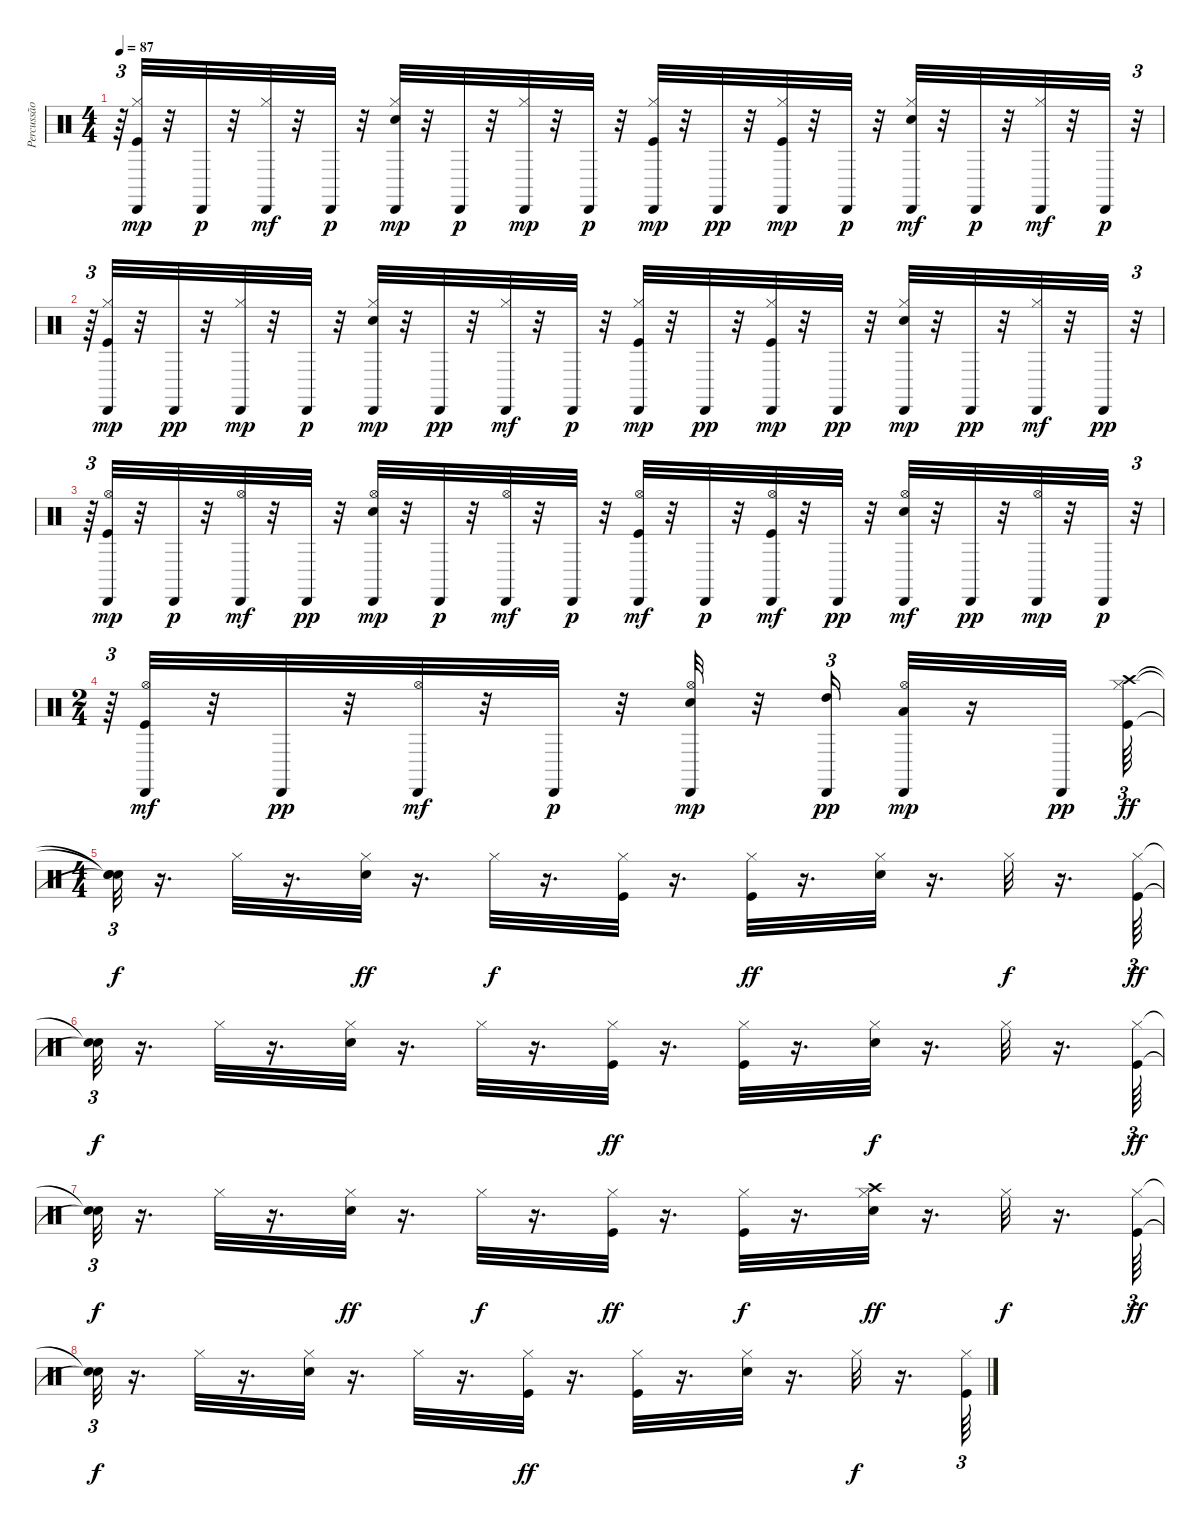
\track ("Percussão" "Percussão") {instrument percussion}
\staff {score}
\articulation defaults
\ts (4 4)
\tempo 87
\clef neutral
\ks c
r.64{tu (3 2) dy p} ("Kick (hit)" "Hi-Hat (closed)" "Cabasa (hit)").32{dy mp} r.32 "Cabasa (hit)".32{dy p} r.32 ("Hi-Hat (closed)" "Cabasa (hit)").32{dy mf} r.32 "Cabasa (hit)".32{dy p} r.32 ("Electric Snare (hit)" "Hi-Hat (closed)" "Cabasa (hit)").32{dy mp} r.32 "Cabasa (hit)".32{dy p} r.32 ("Hi-Hat (closed)" "Cabasa (hit)").32{dy mp} r.32 "Cabasa (hit)".32{dy p} r.32 ("Kick (hit)" "Hi-Hat (closed)" "Cabasa (hit)").32{dy mp} r.32 "Cabasa (hit)".32{dy pp} r.32 ("Kick (hit)" "Hi-Hat (closed)" "Cabasa (hit)").32{dy mp} r.32 "Cabasa (hit)".32{dy p} r.32 ("Electric Snare (hit)" "Hi-Hat (closed)" "Cabasa (hit)").32{dy mf} r.32 "Cabasa (hit)".32{dy p} r.32 ("Hi-Hat (closed)" "Cabasa (hit)").32{dy mf} r.32 "Cabasa (hit)".32{dy p} r.32{tu (3 2)} |
r.64{tu (3 2)} ("Kick (hit)" "Hi-Hat (closed)" "Cabasa (hit)").32{dy mp} r.32 "Cabasa (hit)".32{dy pp} r.32 ("Hi-Hat (closed)" "Cabasa (hit)").32{dy mp} r.32 "Cabasa (hit)".32{dy p} r.32 ("Electric Snare (hit)" "Hi-Hat (closed)" "Cabasa (hit)").32{dy mp} r.32 "Cabasa (hit)".32{dy pp} r.32 ("Hi-Hat (closed)" "Cabasa (hit)").32{dy mf} r.32 "Cabasa (hit)".32{dy p} r.32 ("Kick (hit)" "Hi-Hat (closed)" "Cabasa (hit)").32{dy mp} r.32 "Cabasa (hit)".32{dy pp} r.32 ("Kick (hit)" "Hi-Hat (closed)" "Cabasa (hit)").32{dy mp} r.32 "Cabasa (hit)".32{dy pp} r.32 ("Electric Snare (hit)" "Hi-Hat (closed)" "Cabasa (hit)").32{dy mp} r.32 "Cabasa (hit)".32{dy pp} r.32 ("Hi-Hat (closed)" "Cabasa (hit)").32{dy mf} r.32 "Cabasa (hit)".32{dy pp} r.32{tu (3 2)} |
r.64{tu (3 2)} ("Kick (hit)" "Hi-Hat (open)" "Cabasa (hit)").32{dy mp} r.32 "Cabasa (hit)".32{dy p} r.32 ("Hi-Hat (open)" "Cabasa (hit)").32{dy mf} r.32 "Cabasa (hit)".32{dy pp} r.32 ("Electric Snare (hit)" "Hi-Hat (open)" "Cabasa (hit)").32{dy mp} r.32 "Cabasa (hit)".32{dy p} r.32 ("Hi-Hat (open)" "Cabasa (hit)").32{dy mf} r.32 "Cabasa (hit)".32{dy p} r.32 ("Kick (hit)" "Hi-Hat (open)" "Cabasa (hit)").32{dy mf} r.32 "Cabasa (hit)".32{dy p} r.32 ("Kick (hit)" "Hi-Hat (open)" "Cabasa (hit)").32{dy mf} r.32 "Cabasa (hit)".32{dy pp} r.32 ("Electric Snare (hit)" "Hi-Hat (open)" "Cabasa (hit)").32{dy mf} r.32 "Cabasa (hit)".32{dy pp} r.32 ("Hi-Hat (open)" "Cabasa (hit)").32{dy mp} r.32 "Cabasa (hit)".32{dy p} r.32{tu (3 2)} |
\ts (2 4)
r.64{tu (3 2)} ("Hi-Hat (open)" "Kick (hit)" "Cabasa (hit)").32{dy mf} r.32 "Cabasa (hit)".32{dy pp} r.32 ("Hi-Hat (open)" "Cabasa (hit)").32{dy mf} r.32 "Cabasa (hit)".32{dy p} r.32 ("Electric Snare (hit)" "Hi-Hat (open)" "Cabasa (hit)").32{dy mp} r.32 ("Cabasa (hit)" "High Tom (hit)").16{tu (3 2) dy pp} ("Low Tom (hit)" "Hi-Hat (open)" "Cabasa (hit)").32{dy mp} r.16 "Cabasa (hit)".32{dy pp} ("Kick (hit)" "Hi-Hat (closed)" "Crash high (hit)").64{tu (3 2) dy ff} |
\ts (4 4)
("Snare (hit)"{t} "Snare (hit)"{t} "Snare (hit)"{t}).32{tu (3 2) dy f} r.16{d} "Hi-Hat (closed)".32 r.16{d} ("Electric Snare (hit)" "Hi-Hat (closed)").32{dy ff} r.16{d} "Hi-Hat (closed)".32{dy f} r.16{d} ("Kick (hit)" "Hi-Hat (closed)").32 r.16{d} ("Kick (hit)" "Hi-Hat (closed)").32{dy ff} r.16{d} ("Electric Snare (hit)" "Hi-Hat (closed)").32 r.16{d} "Hi-Hat (closed)".32{dy f} r.16{d} ("Kick (hit)" "Hi-Hat (closed)").64{tu (3 2) dy ff} |
("Snare (hit)"{t} "Snare (hit)"{t}).32{tu (3 2) dy f} r.16{d} "Hi-Hat (closed)".32 r.16{d} ("Electric Snare (hit)" "Hi-Hat (closed)").32 r.16{d} "Hi-Hat (closed)".32 r.16{d} ("Kick (hit)" "Hi-Hat (closed)").32{dy ff} r.16{d} ("Kick (hit)" "Hi-Hat (closed)").32 r.16{d} ("Electric Snare (hit)" "Hi-Hat (closed)").32{dy f} r.16{d} "Hi-Hat (closed)".32 r.16{d} ("Kick (hit)" "Hi-Hat (closed)").64{tu (3 2) dy ff} |
("Snare (hit)"{t} "Snare (hit)"{t}).32{tu (3 2) dy f} r.16{d} "Hi-Hat (closed)".32 r.16{d} ("Electric Snare (hit)" "Hi-Hat (closed)").32{dy ff} r.16{d} "Hi-Hat (closed)".32{dy f} r.16{d} ("Kick (hit)" "Hi-Hat (closed)").32{dy ff} r.16{d} ("Kick (hit)" "Hi-Hat (closed)").32{dy f} r.16{d} ("Electric Snare (hit)" "Hi-Hat (closed)" "Crash high (hit)").32{dy ff} r.16{d} "Hi-Hat (closed)".32{dy f} r.16{d} ("Kick (hit)" "Hi-Hat (closed)").64{tu (3 2) dy ff} |
("Snare (hit)"{t} "Snare (hit)"{t}).32{tu (3 2) dy f} r.16{d} "Hi-Hat (closed)".32 r.16{d} ("Electric Snare (hit)" "Hi-Hat (closed)").32 r.16{d} "Hi-Hat (closed)".32 r.16{d} ("Kick (hit)" "Hi-Hat (closed)").32{dy ff} r.16{d} ("Kick (hit)" "Hi-Hat (closed)").32 r.16{d} ("Electric Snare (hit)" "Hi-Hat (closed)").32 r.16{d} "Hi-Hat (closed)".32{dy f} r.16{d} ("Kick (hit)" "Hi-Hat (closed)").64{tu (3 2)}
